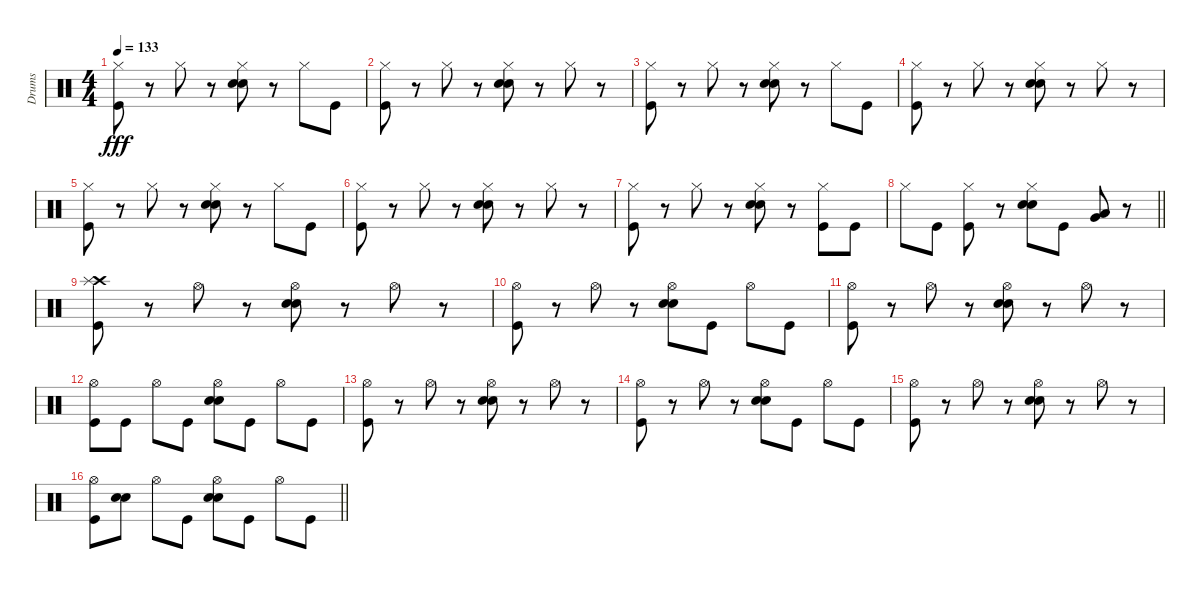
\track ("Drums" "Drums") {instrument percussion}
\staff {score}
\articulation defaults
\ts (4 4)
\tempo 133
\clef neutral
\ks c
("Hi-Hat (closed)" "Kick (hit)").8{dy fff} r.8 "Hi-Hat (closed)".8 r.8 ("Hi-Hat (closed)" "Electric Snare (hit)" "Snare (hit) 2").8 r.8 "Hi-Hat (closed)".8 "Kick (hit)".8 |
("Hi-Hat (closed)" "Kick (hit)").8 r.8 "Hi-Hat (closed)".8 r.8 ("Hi-Hat (closed)" "Electric Snare (hit)" "Snare (hit) 2").8 r.8 "Hi-Hat (closed)".8 r.8 |
("Hi-Hat (closed)" "Kick (hit)").8 r.8 "Hi-Hat (closed)".8 r.8 ("Hi-Hat (closed)" "Electric Snare (hit)" "Snare (hit) 2").8 r.8 "Hi-Hat (closed)".8 "Kick (hit)".8 |
("Hi-Hat (closed)" "Kick (hit)").8 r.8 "Hi-Hat (closed)".8 r.8 ("Hi-Hat (closed)" "Electric Snare (hit)" "Snare (hit) 2").8 r.8 "Hi-Hat (closed)".8 r.8 |
("Hi-Hat (closed)" "Kick (hit)").8 r.8 "Hi-Hat (closed)".8 r.8 ("Hi-Hat (closed)" "Electric Snare (hit)" "Snare (hit) 2").8 r.8 "Hi-Hat (closed)".8 "Kick (hit)".8 |
("Hi-Hat (closed)" "Kick (hit)").8 r.8 "Hi-Hat (closed)".8 r.8 ("Hi-Hat (closed)" "Electric Snare (hit)" "Snare (hit) 2").8 r.8 "Hi-Hat (closed)".8 r.8 |
("Hi-Hat (closed)" "Kick (hit)").8 r.8 "Hi-Hat (closed)".8 r.8 ("Hi-Hat (closed)" "Electric Snare (hit)" "Snare (hit) 2").8 r.8 ("Hi-Hat (closed)" "Kick (hit)").8 "Kick (hit)".8 |
\barLineRight lightlight "Hi-Hat (closed)".8 "Kick (hit)".8
("Hi-Hat (closed)" "Kick (hit)").8 r.8 ("Hi-Hat (closed)" "Electric Snare (hit)" "Snare (hit) 2").8 "Kick (hit)".8 ("Very Low Tom (hit)" "Low Floor Tom (hit)").8 r.8 |
("Crash high (hit)" "Splash (hit)" "Kick (hit)").8 r.8 "Hi-Hat (open)".8 r.8 ("Hi-Hat (open)" "Electric Snare (hit)" "Snare (hit) 2").8 r.8 "Hi-Hat (open)".8 r.8 |
("Hi-Hat (open)" "Kick (hit)").8 r.8 "Hi-Hat (open)".8 r.8 ("Hi-Hat (open)" "Electric Snare (hit)" "Snare (hit) 2").8 "Kick (hit)".8 "Hi-Hat (open)".8 "Kick (hit)".8 |
("Hi-Hat (open)" "Kick (hit)").8 r.8 "Hi-Hat (open)".8 r.8 ("Hi-Hat (open)" "Electric Snare (hit)" "Snare (hit) 2").8 r.8 "Hi-Hat (open)".8 r.8 |
("Hi-Hat (open)" "Kick (hit)").8 "Kick (hit)".8 "Hi-Hat (open)".8 "Kick (hit)".8 ("Hi-Hat (open)" "Electric Snare (hit)" "Snare (hit) 2").8 "Kick (hit)".8 "Hi-Hat (open)".8 "Kick (hit)".8 |
("Hi-Hat (open)" "Kick (hit)").8 r.8 "Hi-Hat (open)".8 r.8 ("Hi-Hat (open)" "Electric Snare (hit)" "Snare (hit) 2").8 r.8 "Hi-Hat (open)".8 r.8 |
("Hi-Hat (open)" "Kick (hit)").8 r.8 "Hi-Hat (open)".8 r.8 ("Hi-Hat (open)" "Electric Snare (hit)" "Snare (hit) 2").8 "Kick (hit)".8 "Hi-Hat (open)".8 "Kick (hit)".8 |
("Hi-Hat (open)" "Kick (hit)").8 r.8 "Hi-Hat (open)".8 r.8 ("Hi-Hat (open)" "Electric Snare (hit)" "Snare (hit) 2").8 r.8 "Hi-Hat (open)".8 r.8 |
\barLineRight lightlight
("Hi-Hat (open)" "Kick (hit)").8 ("Electric Snare (hit)" "Snare (hit) 2").8 "Hi-Hat (open)".8 "Kick (hit)".8 ("Hi-Hat (open)" "Electric Snare (hit)" "Snare (hit) 2").8 "Kick (hit)".8 "Hi-Hat (open)".8 "Kick (hit)".8
